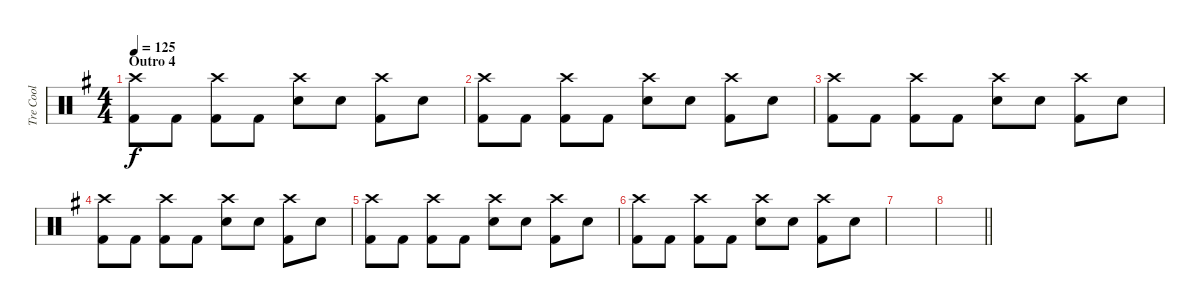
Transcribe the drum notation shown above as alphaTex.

\track ("Tre Cool" "Tre Cool") {instrument percussion}
\staff {score}
\articulation defaults
\ts (4 4)
\section ("" "Outro 4")
\tempo 125
\clef neutral
\ks g
("Crash high (hit)" "Kick (hit) 2").8{dy f} "Kick (hit) 2".8 ("Crash high (hit)" "Kick (hit) 2").8 "Kick (hit) 2".8 ("Crash high (hit)" "Electric Snare (hit)").8 "Electric Snare (hit)".8 ("Crash high (hit)" "Kick (hit) 2").8 "Electric Snare (hit)".8 |
("Crash high (hit)" "Kick (hit) 2").8 "Kick (hit) 2".8 ("Crash high (hit)" "Kick (hit) 2").8 "Kick (hit) 2".8 ("Crash high (hit)" "Electric Snare (hit)").8 "Electric Snare (hit)".8 ("Crash high (hit)" "Kick (hit) 2").8 "Electric Snare (hit)".8 |
("Crash high (hit)" "Kick (hit) 2").8 "Kick (hit) 2".8 ("Crash high (hit)" "Kick (hit) 2").8 "Kick (hit) 2".8 ("Crash high (hit)" "Electric Snare (hit)").8 "Electric Snare (hit)".8 ("Crash high (hit)" "Kick (hit) 2").8 "Electric Snare (hit)".8 |
("Crash high (hit)" "Kick (hit) 2").8 "Kick (hit) 2".8 ("Crash high (hit)" "Kick (hit) 2").8 "Kick (hit) 2".8 ("Crash high (hit)" "Electric Snare (hit)").8 "Electric Snare (hit)".8 ("Crash high (hit)" "Kick (hit) 2").8 "Electric Snare (hit)".8 |
("Crash high (hit)" "Kick (hit) 2").8 "Kick (hit) 2".8 ("Crash high (hit)" "Kick (hit) 2").8 "Kick (hit) 2".8 ("Crash high (hit)" "Electric Snare (hit)").8 "Electric Snare (hit)".8 ("Crash high (hit)" "Kick (hit) 2").8 "Electric Snare (hit)".8 |
("Crash high (hit)" "Kick (hit) 2").8 "Kick (hit) 2".8 ("Crash high (hit)" "Kick (hit) 2").8 "Kick (hit) 2".8 ("Crash high (hit)" "Electric Snare (hit)").8 "Electric Snare (hit)".8 ("Crash high (hit)" "Kick (hit) 2").8 "Electric Snare (hit)".8 |
|
\barLineRight lightlight
